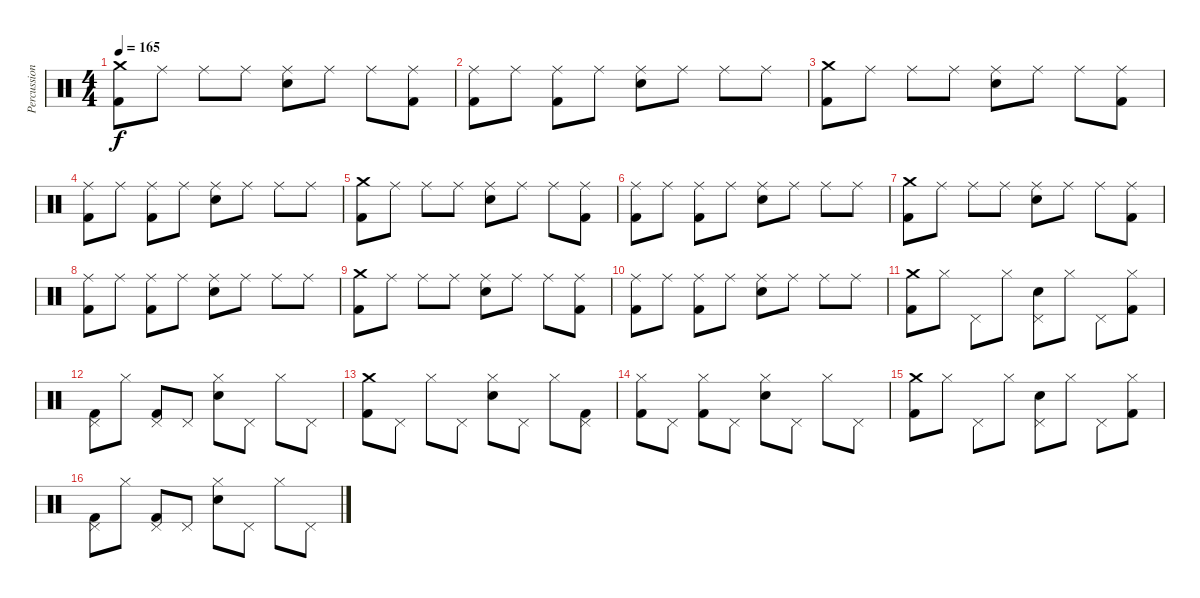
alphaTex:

\track ("Percussion" "Percussion") {instrument percussion}
\staff {score}
\articulation defaults
\ts (4 4)
\tempo 165
\clef neutral
\ks c
("Crash medium (hit)" "Kick (hit) 2").8{dy f} "Ride (middle)".8 "Ride (middle)".8 "Ride (middle)".8 ("Ride (middle)" "Electric Snare (hit)").8 "Ride (middle)".8 "Ride (middle)".8 ("Ride (middle)" "Kick (hit) 2").8 |
("Ride (middle)" "Kick (hit) 2").8 "Ride (middle)".8 ("Ride (middle)" "Kick (hit) 2").8 "Ride (middle)".8 ("Ride (middle)" "Electric Snare (hit)").8 "Ride (middle)".8 "Ride (middle)".8 "Ride (middle)".8 |
("Crash medium (hit)" "Kick (hit) 2").8 "Ride (middle)".8 "Ride (middle)".8 "Ride (middle)".8 ("Ride (middle)" "Electric Snare (hit)").8 "Ride (middle)".8 "Ride (middle)".8 ("Ride (middle)" "Kick (hit) 2").8 |
("Ride (middle)" "Kick (hit) 2").8 "Ride (middle)".8 ("Ride (middle)" "Kick (hit) 2").8 "Ride (middle)".8 ("Ride (middle)" "Electric Snare (hit)").8 "Ride (middle)".8 "Ride (middle)".8 "Ride (middle)".8 |
("Crash medium (hit)" "Kick (hit) 2").8 "Ride (middle)".8 "Ride (middle)".8 "Ride (middle)".8 ("Ride (middle)" "Electric Snare (hit)").8 "Ride (middle)".8 "Ride (middle)".8 ("Ride (middle)" "Kick (hit) 2").8 |
("Ride (middle)" "Kick (hit) 2").8 "Ride (middle)".8 ("Ride (middle)" "Kick (hit) 2").8 "Ride (middle)".8 ("Ride (middle)" "Electric Snare (hit)").8 "Ride (middle)".8 "Ride (middle)".8 "Ride (middle)".8 |
("Crash medium (hit)" "Kick (hit) 2").8 "Ride (middle)".8 "Ride (middle)".8 "Ride (middle)".8 ("Ride (middle)" "Electric Snare (hit)").8 "Ride (middle)".8 "Ride (middle)".8 ("Ride (middle)" "Kick (hit) 2").8 |
("Ride (middle)" "Kick (hit) 2").8 "Ride (middle)".8 ("Ride (middle)" "Kick (hit) 2").8 "Ride (middle)".8 ("Ride (middle)" "Electric Snare (hit)").8 "Ride (middle)".8 "Ride (middle)".8 "Ride (middle)".8 |
("Crash medium (hit)" "Kick (hit) 2").8 "Ride (middle)".8 "Ride (middle)".8 "Ride (middle)".8 ("Ride (middle)" "Electric Snare (hit)").8 "Ride (middle)".8 "Ride (middle)".8 ("Ride (middle)" "Kick (hit) 2").8 |
("Ride (middle)" "Kick (hit) 2").8 "Ride (middle)".8 ("Ride (middle)" "Kick (hit) 2").8 "Ride (middle)".8 ("Ride (middle)" "Electric Snare (hit)").8 "Ride (middle)".8 "Ride (middle)".8 "Ride (middle)".8 |
("Crash medium (hit)" "Kick (hit) 2").8 "Hi-Hat (closed)".8 "Pedal Hi-Hat (hit)".8 "Hi-Hat (closed)".8 ("Pedal Hi-Hat (hit)" "Electric Snare (hit)").8 "Hi-Hat (closed)".8 "Pedal Hi-Hat (hit)".8 ("Hi-Hat (closed)" "Kick (hit) 2").8 |
("Pedal Hi-Hat (hit)" "Kick (hit) 2").8 "Hi-Hat (closed)".8 ("Pedal Hi-Hat (hit)" "Kick (hit) 2").8 "Pedal Hi-Hat (hit)".8 ("Hi-Hat (closed)" "Electric Snare (hit)").8 "Pedal Hi-Hat (hit)".8 "Hi-Hat (closed)".8 "Pedal Hi-Hat (hit)".8 |
("Crash medium (hit)" "Kick (hit) 2").8 "Pedal Hi-Hat (hit)".8 "Hi-Hat (closed)".8 "Pedal Hi-Hat (hit)".8 ("Hi-Hat (closed)" "Electric Snare (hit)").8 "Pedal Hi-Hat (hit)".8 "Hi-Hat (closed)".8 ("Pedal Hi-Hat (hit)" "Kick (hit) 2").8 |
("Hi-Hat (closed)" "Kick (hit) 2").8 "Pedal Hi-Hat (hit)".8 ("Hi-Hat (closed)" "Kick (hit) 2").8 "Pedal Hi-Hat (hit)".8 ("Hi-Hat (closed)" "Electric Snare (hit)").8 "Pedal Hi-Hat (hit)".8 "Hi-Hat (closed)".8 "Pedal Hi-Hat (hit)".8 |
("Crash medium (hit)" "Kick (hit) 2").8 "Hi-Hat (closed)".8 "Pedal Hi-Hat (hit)".8 "Hi-Hat (closed)".8 ("Pedal Hi-Hat (hit)" "Electric Snare (hit)").8 "Hi-Hat (closed)".8 "Pedal Hi-Hat (hit)".8 ("Hi-Hat (closed)" "Kick (hit) 2").8 |
("Pedal Hi-Hat (hit)" "Kick (hit) 2").8 "Hi-Hat (closed)".8 ("Pedal Hi-Hat (hit)" "Kick (hit) 2").8 "Pedal Hi-Hat (hit)".8 ("Hi-Hat (closed)" "Electric Snare (hit)").8 "Pedal Hi-Hat (hit)".8 "Hi-Hat (closed)".8 "Pedal Hi-Hat (hit)".8
